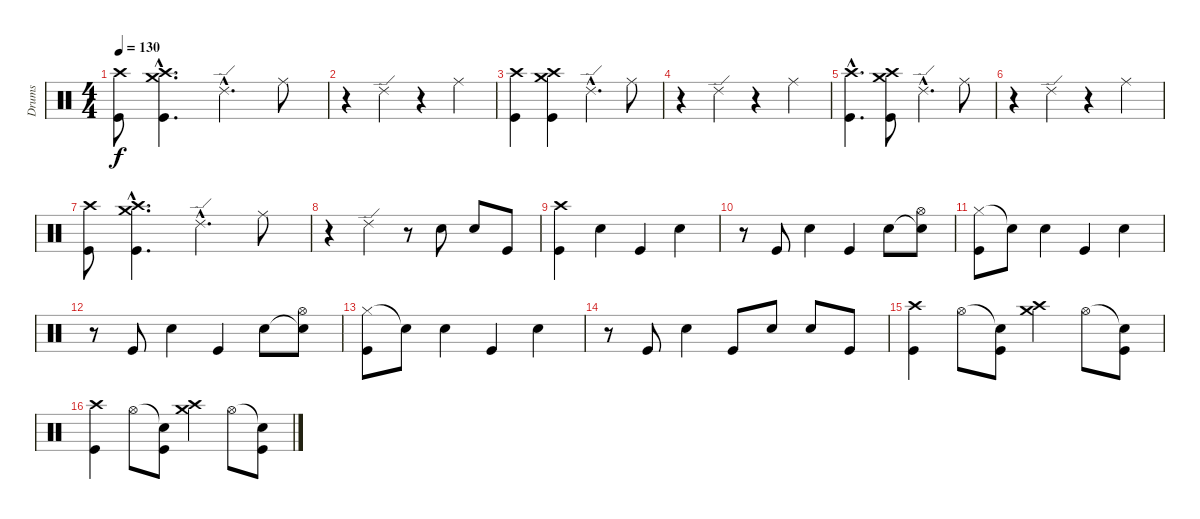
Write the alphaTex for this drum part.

\track ("Drums" "Drums") {instrument percussion}
\staff {score}
\articulation defaults
\ts (4 4)
\tempo 130
\clef neutral
\ks c
("Crash high (hit)" "Kick (hit)").8{dy f} ("Crash medium (hit)"{hac} "Crash high (hit)"{hac} "Kick (hit)"{hac}).4{d} "Ride (edge) 2"{hac}.4{d} "Ride (middle)".8 |
r.4 "Ride (edge) 2".4 r.4 "Ride (middle)".4 |
("Crash high (hit)" "Kick (hit)").4 ("Crash medium (hit)" "Crash high (hit)" "Kick (hit)").4 "Ride (edge) 2"{hac}.4{d} "Ride (middle)".8 |
r.4 "Ride (edge) 2".4 r.4 "Ride (middle)".4 |
("Crash high (hit)"{hac} "Kick (hit)"{hac}).4{d} ("Crash medium (hit)" "Crash high (hit)" "Kick (hit)").8 "Ride (edge) 2"{hac}.4{d} "Ride (middle)".8 |
r.4 "Ride (edge) 2".4 r.4 "Ride (middle)".4 |
("Crash high (hit)" "Kick (hit)").8 ("Crash medium (hit)"{hac} "Crash high (hit)"{hac} "Kick (hit)"{hac}).4{d} "Ride (edge) 2"{hac}.4{d} "Ride (middle)".8 |
r.4 "Ride (edge) 2".4 r.8 "Electric Snare (hit)".8 "Electric Snare (hit)".8 "Kick (hit)".8 |
("Crash high (hit)" "Kick (hit)").4 "Electric Snare (hit)".4 "Kick (hit)".4 "Electric Snare (hit)".4 |
r.8 "Kick (hit)".8 "Electric Snare (hit)".4 "Kick (hit)".4 "Electric Snare (hit)".8 ("Snare (hit)"{t} "Hi-Hat (open)").8 |
("Hi-Hat (closed)" "Kick (hit)").8 "Snare (hit)"{t}.8 "Electric Snare (hit)".4 "Kick (hit)".4 "Electric Snare (hit)".4 |
r.8 "Kick (hit)".8 "Electric Snare (hit)".4 "Kick (hit)".4 "Electric Snare (hit)".8 ("Snare (hit)"{t} "Hi-Hat (open)").8 |
("Hi-Hat (closed)" "Kick (hit)").8 "Snare (hit)"{t}.8 "Electric Snare (hit)".4 "Kick (hit)".4 "Electric Snare (hit)".4 |
r.8 "Kick (hit)".8 "Electric Snare (hit)".4 "Kick (hit)".8 "Electric Snare (hit)".8 "Electric Snare (hit)".8 "Kick (hit)".8 |
("Crash high (hit)" "Kick (hit)").4 "Hi-Hat (open)".8 ("Snare (hit)"{t} "Kick (hit)").8 ("Crash medium (hit)" "Crash high (hit)").4 "Hi-Hat (open)".8 ("Snare (hit)"{t} "Kick (hit)").8 |
("Crash high (hit)" "Kick (hit)").4 "Hi-Hat (open)".8 ("Snare (hit)"{t} "Kick (hit)").8 ("Crash medium (hit)" "Crash high (hit)").4 "Hi-Hat (open)".8 ("Snare (hit)"{t} "Kick (hit)").8
